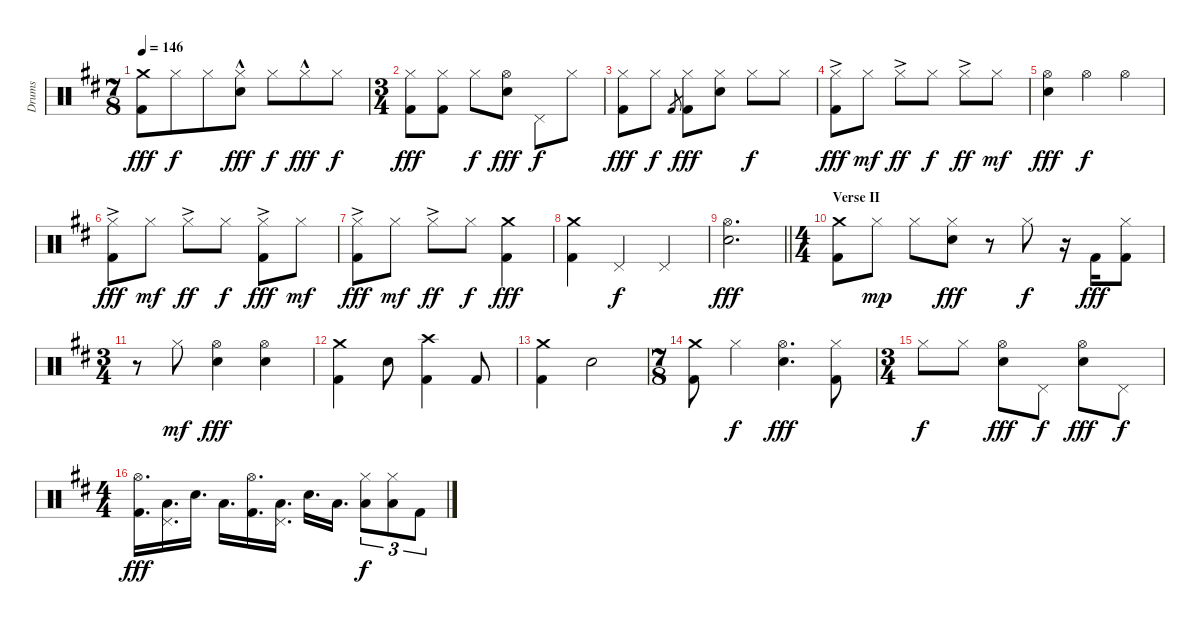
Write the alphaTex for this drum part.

\track ("Drums" "Drums") {instrument percussion}
\staff {score}
\articulation defaults
\ts (7 8)
\tempo 146
\clef neutral
\ks d
("Crash medium (hit)" "Kick (hit) 2").8{dy fff} "Hi-Hat (closed)".8{dy f} "Hi-Hat (closed)".8 ("Hi-Hat (closed)"{hac} "Snare (hit) 2").8{dy fff} "Hi-Hat (closed)".8{dy f} "Hi-Hat (closed)"{hac}.8{dy fff} "Hi-Hat (closed)".8{dy f} |
\ts (3 4)
("Hi-Hat (closed)" "Kick (hit) 2").8{dy fff} ("Hi-Hat (closed)" "Kick (hit) 2").8 "Hi-Hat (closed)".8{dy f} ("Hi-Hat (open)" "Snare (hit) 2").8{dy fff} "Pedal Hi-Hat (hit)".8{dy f} "Hi-Hat (closed)".8 |
("Hi-Hat (closed)" "Kick (hit) 2").8{dy fff} "Hi-Hat (closed)".8{dy f} "Kick (hit) 2".8{gr} ("Hi-Hat (closed)" "Kick (hit) 2").8{dy fff} ("Hi-Hat (closed)" "Snare (hit) 2").8 "Hi-Hat (closed)".8{dy f} "Hi-Hat (closed)".8 |
("Hi-Hat (closed)"{ac} "Kick (hit) 2").8{dy fff} "Hi-Hat (closed)".8{dy mf} "Hi-Hat (closed)"{ac}.8{dy ff} "Hi-Hat (closed)".8{dy f} "Hi-Hat (closed)"{ac}.8{dy ff} "Hi-Hat (closed)".8{dy mf} |
("Hi-Hat (open)" "Snare (hit) 2").4{dy fff} "Hi-Hat (open)".4{dy f} "Hi-Hat (open)".4 |
("Hi-Hat (closed)"{ac} "Kick (hit) 2").8{dy fff} "Hi-Hat (closed)".8{dy mf} "Hi-Hat (closed)"{ac}.8{dy ff} "Hi-Hat (closed)".8{dy f} ("Hi-Hat (closed)"{ac} "Kick (hit) 2").8{dy fff} "Hi-Hat (closed)".8{dy mf} |
("Hi-Hat (closed)"{ac} "Kick (hit) 2").8{dy fff} "Hi-Hat (closed)".8{dy mf} "Hi-Hat (closed)"{ac}.8{dy ff} "Hi-Hat (closed)".8{dy f} ("Crash medium (hit)" "Kick (hit) 2").4{dy fff} |
("Crash medium (hit)" "Kick (hit) 2").4 "Pedal Hi-Hat (hit)".4{dy f} "Pedal Hi-Hat (hit)".4 |
\barLineRight lightlight
("Hi-Hat (open)" "Snare (hit) 2").2{d dy fff} |
\ts (4 4)
\section ("" "Verse II")
("Crash medium (hit)" "Kick (hit) 2").8 "Hi-Hat (closed)".8{dy mp} "Hi-Hat (closed)".8 ("Hi-Hat (closed)" "Snare (hit) 2").8{dy fff} r.8 "Hi-Hat (closed)".8{dy f} r.16 "Kick (hit) 2".16{dy fff} ("Hi-Hat (closed)" "Kick (hit) 2").8 |
\ts (3 4)
r.8 "Hi-Hat (closed)".8{dy mf} ("Hi-Hat (open)" "Snare (hit) 2").4{dy fff} ("Hi-Hat (open)" "Snare (hit) 2").4 |
("Crash medium (hit)" "Kick (hit) 2").4 "Snare (hit) 2".8 ("Crash high (hit)" "Kick (hit) 2").4 "Kick (hit) 2".8 |
("Crash medium (hit)" "Kick (hit) 2").4 "Snare (hit) 2".2 |
\ts (7 8)
("Crash medium (hit)" "Kick (hit) 2").8 "Hi-Hat (closed)".4{dy f} ("Hi-Hat (open)" "Snare (hit) 2").4{d dy fff} ("Hi-Hat (closed)" "Kick (hit) 2").8 |
\ts (3 4)
"Hi-Hat (closed)".8{dy f} "Hi-Hat (closed)".8 ("Hi-Hat (open)" "Snare (hit) 2").8{dy fff} "Pedal Hi-Hat (hit)".8{dy f} ("Hi-Hat (open)" "Snare (hit) 2").8{dy fff} "Pedal Hi-Hat (hit)".8{dy f} |
\ts (4 4)
("Hi-Hat (open)" "Kick (hit) 2").16{d dy fff} ("Pedal Hi-Hat (hit)" "Low Tom (hit)").16{d} "Snare (hit) 2".16{d} "Low Tom (hit)".16{d} ("Hi-Hat (open)" "Kick (hit) 2").16{d} ("Pedal Hi-Hat (hit)" "Low Tom (hit)").16{d} "Snare (hit) 2".16{d} "Low Tom (hit)".16{d} ("Hi-Hat (closed)" "Low Tom (hit)").8{tu (3 2) dy f} ("Hi-Hat (closed)" "Low Tom (hit)").8{tu (3 2)} "Kick (hit) 2".8{tu (3 2)}
